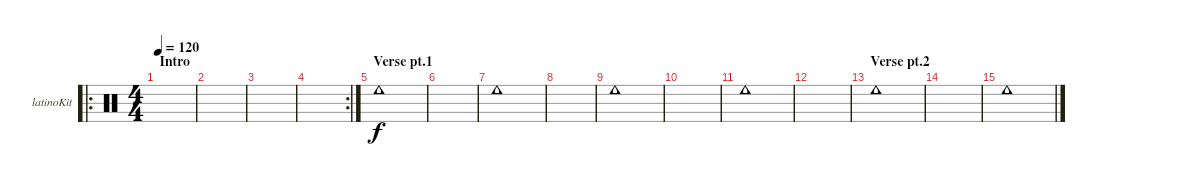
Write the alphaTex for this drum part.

\defaultSystemsLayout 4
\bracketExtendMode groupsimilarinstruments
\firstSystemTrackNameOrientation horizontal
\otherSystemsTrackNameOrientation horizontal
\track ("Kit-Latino" "latinoKit") {instrument percussion}
\staff {score}
\articulation defaults
\ro
\ts (4 4)
\section ("" "Intro")
\tempo 120
\clef neutral
\scale
0.5
\ks c
|
\scale
0.25 |
\scale
0.25 |
\rc 2
\scale
0.355932 |
\section ("" "Verse pt.1")
\scale
0.322034 "Cowbell low (hit)".1 |
\scale
0.322034 |
\scale
0.333333 "Cowbell low (hit)".1 |
\scale
0.333333 |
\scale
0.333333 "Cowbell low (hit)".1 |
\scale
0.333333 |
\scale
0.333333 "Cowbell low (hit)".1 |
\scale
0.333333 |
\section ("" "Verse pt.2")
\scale
0.333333 "Cowbell low (hit)".1 |
\scale
0.333333 |
\scale
0.333333 "Cowbell low (hit)".1 |
\scale
0.333333
